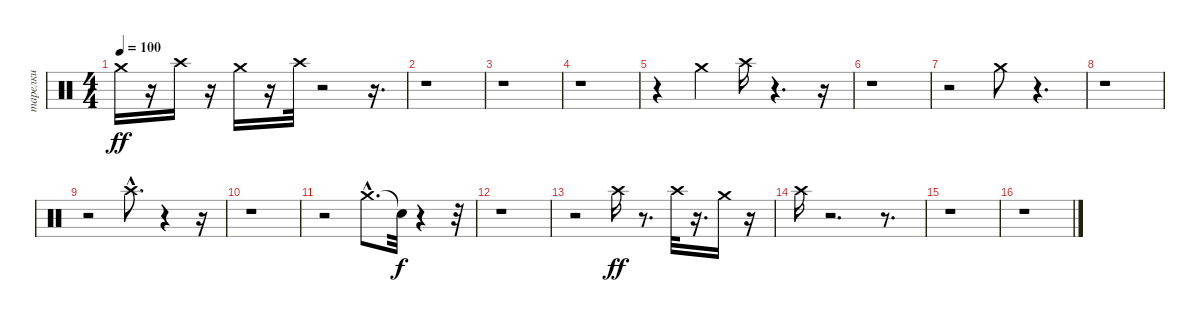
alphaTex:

\track ("тарелки" "тарелки") {instrument percussion}
\staff {score}
\articulation defaults
\ts (4 4)
\tempo 100
\clef neutral
\ks c "Crash medium (hit)".16{dy ff}
r.16 "Crash high (hit)".16 r.16 "Crash medium (hit)".16 r.16 "Crash high (hit)".32 r.2 r.16{d} |
r.1 |
r.1 |
r.1 |
r.4 "Crash medium (hit)".4 "Crash high (hit)".16 r.4{d} r.16 |
r.1 |
r.2 "Crash medium (hit)".8 r.4{d} |
r.1 |
r.2 "Crash high (hit)"{hac}.8{d} r.4 r.16 |
r.1 |
r.2 "Crash medium (hit)"{hac}.8{d} "Snare (hit)"{t}.32{dy f} r.4 r.32 |
r.1 |
r.2 "Crash high (hit)".16{dy ff} r.8{d} "Crash high (hit)".32 r.16{d} "Crash medium (hit)".16 r.16 |
"Crash high (hit)".16 r.2{d} r.8{d} |
r.1 |
r.1
